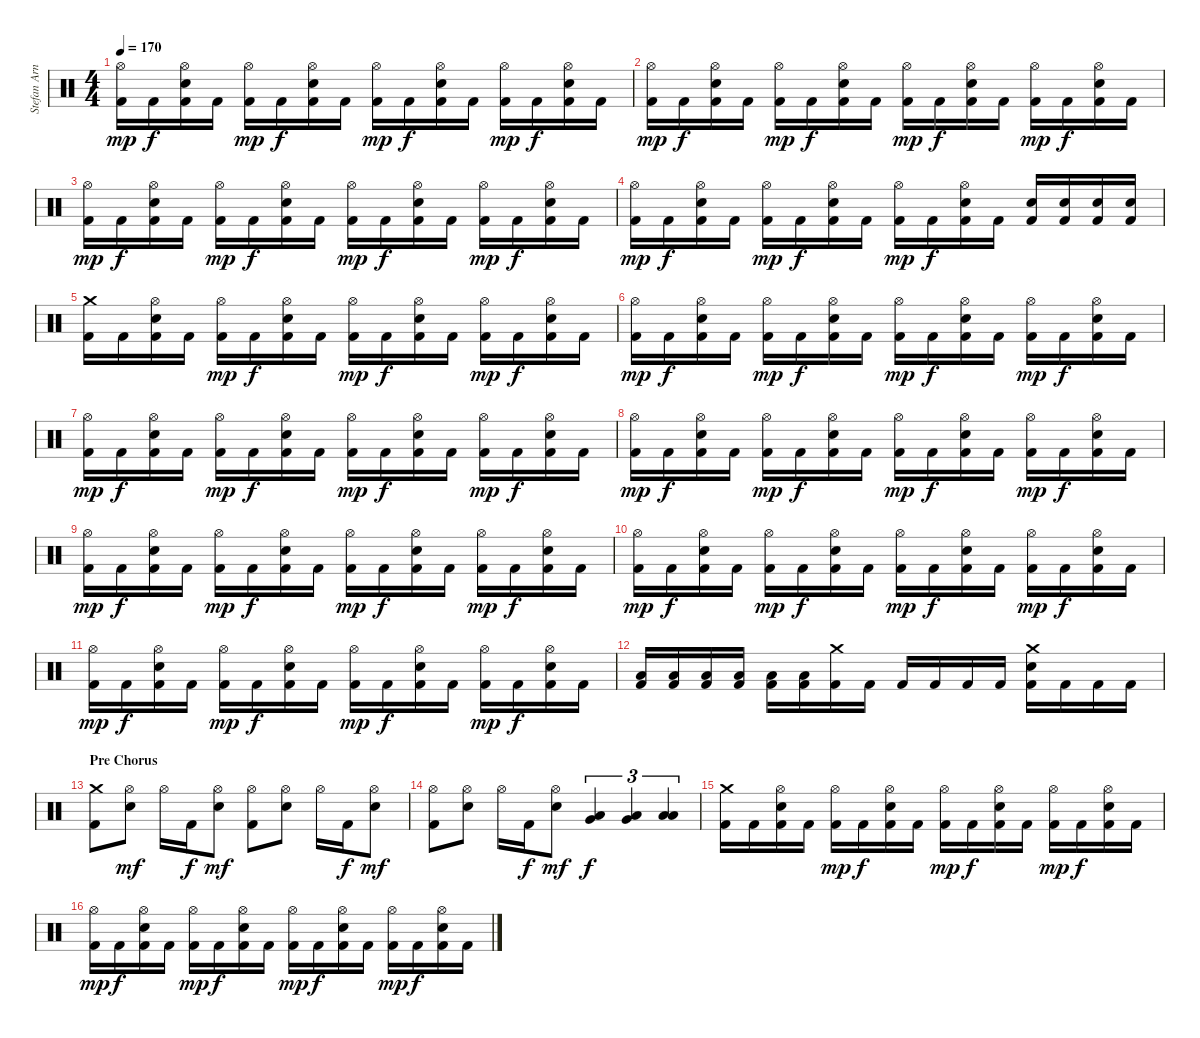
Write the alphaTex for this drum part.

\track ("Stefan Arnold" "Stefan Arn") {instrument percussion}
\staff {score}
\articulation defaults
\ts (4 4)
\tempo 170
\clef neutral
\ks c
("Hi-Hat (open)" "Kick (hit) 2").16{dy mp} "Kick (hit) 2".16{dy f} ("Hi-Hat (open)" "Electric Snare (hit)" "Kick (hit) 2").16 "Kick (hit) 2".16 ("Hi-Hat (open)" "Kick (hit) 2").16{dy mp} "Kick (hit) 2".16{dy f} ("Hi-Hat (open)" "Electric Snare (hit)" "Kick (hit) 2").16 "Kick (hit) 2".16 ("Hi-Hat (open)" "Kick (hit) 2").16{dy mp} "Kick (hit) 2".16{dy f} ("Hi-Hat (open)" "Electric Snare (hit)" "Kick (hit) 2").16 "Kick (hit) 2".16 ("Hi-Hat (open)" "Kick (hit) 2").16{dy mp} "Kick (hit) 2".16{dy f} ("Hi-Hat (open)" "Electric Snare (hit)" "Kick (hit) 2").16 "Kick (hit) 2".16 |
("Hi-Hat (open)" "Kick (hit) 2").16{dy mp} "Kick (hit) 2".16{dy f} ("Hi-Hat (open)" "Electric Snare (hit)" "Kick (hit) 2").16 "Kick (hit) 2".16 ("Hi-Hat (open)" "Kick (hit) 2").16{dy mp} "Kick (hit) 2".16{dy f} ("Hi-Hat (open)" "Electric Snare (hit)" "Kick (hit) 2").16 "Kick (hit) 2".16 ("Hi-Hat (open)" "Kick (hit) 2").16{dy mp} "Kick (hit) 2".16{dy f} ("Hi-Hat (open)" "Electric Snare (hit)" "Kick (hit) 2").16 "Kick (hit) 2".16 ("Hi-Hat (open)" "Kick (hit) 2").16{dy mp} "Kick (hit) 2".16{dy f} ("Hi-Hat (open)" "Electric Snare (hit)" "Kick (hit) 2").16 "Kick (hit) 2".16 |
("Hi-Hat (open)" "Kick (hit) 2").16{dy mp} "Kick (hit) 2".16{dy f} ("Hi-Hat (open)" "Electric Snare (hit)" "Kick (hit) 2").16 "Kick (hit) 2".16 ("Hi-Hat (open)" "Kick (hit) 2").16{dy mp} "Kick (hit) 2".16{dy f} ("Hi-Hat (open)" "Electric Snare (hit)" "Kick (hit) 2").16 "Kick (hit) 2".16 ("Hi-Hat (open)" "Kick (hit) 2").16{dy mp} "Kick (hit) 2".16{dy f} ("Hi-Hat (open)" "Electric Snare (hit)" "Kick (hit) 2").16 "Kick (hit) 2".16 ("Hi-Hat (open)" "Kick (hit) 2").16{dy mp} "Kick (hit) 2".16{dy f} ("Hi-Hat (open)" "Electric Snare (hit)" "Kick (hit) 2").16 "Kick (hit) 2".16 |
("Hi-Hat (open)" "Kick (hit) 2").16{dy mp} "Kick (hit) 2".16{dy f} ("Hi-Hat (open)" "Electric Snare (hit)" "Kick (hit) 2").16 "Kick (hit) 2".16 ("Hi-Hat (open)" "Kick (hit) 2").16{dy mp} "Kick (hit) 2".16{dy f} ("Hi-Hat (open)" "Electric Snare (hit)" "Kick (hit) 2").16 "Kick (hit) 2".16 ("Hi-Hat (open)" "Kick (hit) 2").16{dy mp} "Kick (hit) 2".16{dy f} ("Hi-Hat (open)" "Electric Snare (hit)" "Kick (hit) 2").16 "Kick (hit) 2".16 ("Electric Snare (hit)" "Kick (hit) 2").16 ("Electric Snare (hit)" "Kick (hit) 2").16 ("Electric Snare (hit)" "Kick (hit) 2").16 ("Electric Snare (hit)" "Kick (hit) 2").16 |
("Crash medium (hit)" "Kick (hit) 2").16 "Kick (hit) 2".16 ("Hi-Hat (open)" "Electric Snare (hit)" "Kick (hit) 2").16 "Kick (hit) 2".16 ("Hi-Hat (open)" "Kick (hit) 2").16{dy mp} "Kick (hit) 2".16{dy f} ("Hi-Hat (open)" "Electric Snare (hit)" "Kick (hit) 2").16 "Kick (hit) 2".16 ("Hi-Hat (open)" "Kick (hit) 2").16{dy mp} "Kick (hit) 2".16{dy f} ("Hi-Hat (open)" "Electric Snare (hit)" "Kick (hit) 2").16 "Kick (hit) 2".16 ("Hi-Hat (open)" "Kick (hit) 2").16{dy mp} "Kick (hit) 2".16{dy f} ("Hi-Hat (open)" "Electric Snare (hit)" "Kick (hit) 2").16 "Kick (hit) 2".16 |
("Hi-Hat (open)" "Kick (hit) 2").16{dy mp} "Kick (hit) 2".16{dy f} ("Hi-Hat (open)" "Electric Snare (hit)" "Kick (hit) 2").16 "Kick (hit) 2".16 ("Hi-Hat (open)" "Kick (hit) 2").16{dy mp} "Kick (hit) 2".16{dy f} ("Hi-Hat (open)" "Electric Snare (hit)" "Kick (hit) 2").16 "Kick (hit) 2".16 ("Hi-Hat (open)" "Kick (hit) 2").16{dy mp} "Kick (hit) 2".16{dy f} ("Hi-Hat (open)" "Electric Snare (hit)" "Kick (hit) 2").16 "Kick (hit) 2".16 ("Hi-Hat (open)" "Kick (hit) 2").16{dy mp} "Kick (hit) 2".16{dy f} ("Hi-Hat (open)" "Electric Snare (hit)" "Kick (hit) 2").16 "Kick (hit) 2".16 |
("Hi-Hat (open)" "Kick (hit) 2").16{dy mp} "Kick (hit) 2".16{dy f} ("Hi-Hat (open)" "Electric Snare (hit)" "Kick (hit) 2").16 "Kick (hit) 2".16 ("Hi-Hat (open)" "Kick (hit) 2").16{dy mp} "Kick (hit) 2".16{dy f} ("Hi-Hat (open)" "Electric Snare (hit)" "Kick (hit) 2").16 "Kick (hit) 2".16 ("Hi-Hat (open)" "Kick (hit) 2").16{dy mp} "Kick (hit) 2".16{dy f} ("Hi-Hat (open)" "Electric Snare (hit)" "Kick (hit) 2").16 "Kick (hit) 2".16 ("Hi-Hat (open)" "Kick (hit) 2").16{dy mp} "Kick (hit) 2".16{dy f} ("Hi-Hat (open)" "Electric Snare (hit)" "Kick (hit) 2").16 "Kick (hit) 2".16 |
("Hi-Hat (open)" "Kick (hit) 2").16{dy mp} "Kick (hit) 2".16{dy f} ("Hi-Hat (open)" "Electric Snare (hit)" "Kick (hit) 2").16 "Kick (hit) 2".16 ("Hi-Hat (open)" "Kick (hit) 2").16{dy mp} "Kick (hit) 2".16{dy f} ("Hi-Hat (open)" "Electric Snare (hit)" "Kick (hit) 2").16 "Kick (hit) 2".16 ("Hi-Hat (open)" "Kick (hit) 2").16{dy mp} "Kick (hit) 2".16{dy f} ("Hi-Hat (open)" "Electric Snare (hit)" "Kick (hit) 2").16 "Kick (hit) 2".16 ("Hi-Hat (open)" "Kick (hit) 2").16{dy mp} "Kick (hit) 2".16{dy f} ("Hi-Hat (open)" "Electric Snare (hit)" "Kick (hit) 2").16 "Kick (hit) 2".16 |
("Hi-Hat (open)" "Kick (hit) 2").16{dy mp} "Kick (hit) 2".16{dy f} ("Hi-Hat (open)" "Electric Snare (hit)" "Kick (hit) 2").16 "Kick (hit) 2".16 ("Hi-Hat (open)" "Kick (hit) 2").16{dy mp} "Kick (hit) 2".16{dy f} ("Hi-Hat (open)" "Electric Snare (hit)" "Kick (hit) 2").16 "Kick (hit) 2".16 ("Hi-Hat (open)" "Kick (hit) 2").16{dy mp} "Kick (hit) 2".16{dy f} ("Hi-Hat (open)" "Electric Snare (hit)" "Kick (hit) 2").16 "Kick (hit) 2".16 ("Hi-Hat (open)" "Kick (hit) 2").16{dy mp} "Kick (hit) 2".16{dy f} ("Hi-Hat (open)" "Electric Snare (hit)" "Kick (hit) 2").16 "Kick (hit) 2".16 |
("Hi-Hat (open)" "Kick (hit) 2").16{dy mp} "Kick (hit) 2".16{dy f} ("Hi-Hat (open)" "Electric Snare (hit)" "Kick (hit) 2").16 "Kick (hit) 2".16 ("Hi-Hat (open)" "Kick (hit) 2").16{dy mp} "Kick (hit) 2".16{dy f} ("Hi-Hat (open)" "Electric Snare (hit)" "Kick (hit) 2").16 "Kick (hit) 2".16 ("Hi-Hat (open)" "Kick (hit) 2").16{dy mp} "Kick (hit) 2".16{dy f} ("Hi-Hat (open)" "Electric Snare (hit)" "Kick (hit) 2").16 "Kick (hit) 2".16 ("Hi-Hat (open)" "Kick (hit) 2").16{dy mp} "Kick (hit) 2".16{dy f} ("Hi-Hat (open)" "Electric Snare (hit)" "Kick (hit) 2").16 "Kick (hit) 2".16 |
("Hi-Hat (open)" "Kick (hit) 2").16{dy mp} "Kick (hit) 2".16{dy f} ("Hi-Hat (open)" "Electric Snare (hit)" "Kick (hit) 2").16 "Kick (hit) 2".16 ("Hi-Hat (open)" "Kick (hit) 2").16{dy mp} "Kick (hit) 2".16{dy f} ("Hi-Hat (open)" "Electric Snare (hit)" "Kick (hit) 2").16 "Kick (hit) 2".16 ("Hi-Hat (open)" "Kick (hit) 2").16{dy mp} "Kick (hit) 2".16{dy f} ("Hi-Hat (open)" "Electric Snare (hit)" "Kick (hit) 2").16 "Kick (hit) 2".16 ("Hi-Hat (open)" "Kick (hit) 2").16{dy mp} "Kick (hit) 2".16{dy f} ("Hi-Hat (open)" "Electric Snare (hit)" "Kick (hit) 2").16 "Kick (hit) 2".16 |
("Low Tom (hit)" "Kick (hit) 2").16 ("Low Tom (hit)" "Kick (hit) 2").16 ("Low Tom (hit)" "Kick (hit) 2").16 ("Low Tom (hit)" "Kick (hit) 2").16 ("Low Tom (hit)" "Kick (hit) 2").16 ("Low Tom (hit)" "Kick (hit) 2").16 ("Crash medium (hit)" "Kick (hit) 2").16 "Kick (hit) 2".16 "Kick (hit) 2".16 "Kick (hit) 2".16 "Kick (hit) 2".16 "Kick (hit) 2".16 ("Crash medium (hit)" "Electric Snare (hit)" "Kick (hit) 2").16 "Kick (hit) 2".16 "Kick (hit) 2".16 "Kick (hit) 2".16 |
\section ("" "Pre Chorus")
("Crash medium (hit)" "Kick (hit) 2").8 ("Hi-Hat (open)" "Electric Snare (hit)").8{dy mf} "Hi-Hat (open)".16 "Kick (hit) 2".16{dy f} ("Hi-Hat (open)" "Electric Snare (hit)").8{dy mf} ("Hi-Hat (open)" "Kick (hit) 2").8 ("Hi-Hat (open)" "Electric Snare (hit)").8 "Hi-Hat (open)".16 "Kick (hit) 2".16{dy f} ("Hi-Hat (open)" "Electric Snare (hit)").8{dy mf} |
("Hi-Hat (open)" "Kick (hit) 2").8 ("Hi-Hat (open)" "Electric Snare (hit)").8 "Hi-Hat (open)".16 "Kick (hit) 2".16{dy f} ("Hi-Hat (open)" "Electric Snare (hit)").8{dy mf} ("Low Tom (hit)" "Very Low Tom (hit)").4{tu (3 2) dy f} ("Very Low Tom (hit)" "Low Floor Tom (hit)").4{tu (3 2)} ("Low Floor Tom (hit)" "Low Floor Tom (hit)").4{tu (3 2)} |
("Crash medium (hit)" "Kick (hit) 2").16 "Kick (hit) 2".16 ("Hi-Hat (open)" "Electric Snare (hit)" "Kick (hit) 2").16 "Kick (hit) 2".16 ("Hi-Hat (open)" "Kick (hit) 2").16{dy mp} "Kick (hit) 2".16{dy f} ("Hi-Hat (open)" "Electric Snare (hit)" "Kick (hit) 2").16 "Kick (hit) 2".16 ("Hi-Hat (open)" "Kick (hit) 2").16{dy mp} "Kick (hit) 2".16{dy f} ("Hi-Hat (open)" "Electric Snare (hit)" "Kick (hit) 2").16 "Kick (hit) 2".16 ("Hi-Hat (open)" "Kick (hit) 2").16{dy mp} "Kick (hit) 2".16{dy f} ("Hi-Hat (open)" "Electric Snare (hit)" "Kick (hit) 2").16 "Kick (hit) 2".16 |
("Hi-Hat (open)" "Kick (hit) 2").16{dy mp} "Kick (hit) 2".16{dy f} ("Hi-Hat (open)" "Electric Snare (hit)" "Kick (hit) 2").16 "Kick (hit) 2".16 ("Hi-Hat (open)" "Kick (hit) 2").16{dy mp} "Kick (hit) 2".16{dy f} ("Hi-Hat (open)" "Electric Snare (hit)" "Kick (hit) 2").16 "Kick (hit) 2".16 ("Hi-Hat (open)" "Kick (hit) 2").16{dy mp} "Kick (hit) 2".16{dy f} ("Hi-Hat (open)" "Electric Snare (hit)" "Kick (hit) 2").16 "Kick (hit) 2".16 ("Hi-Hat (open)" "Kick (hit) 2").16{dy mp} "Kick (hit) 2".16{dy f} ("Hi-Hat (open)" "Electric Snare (hit)" "Kick (hit) 2").16 "Kick (hit) 2".16
